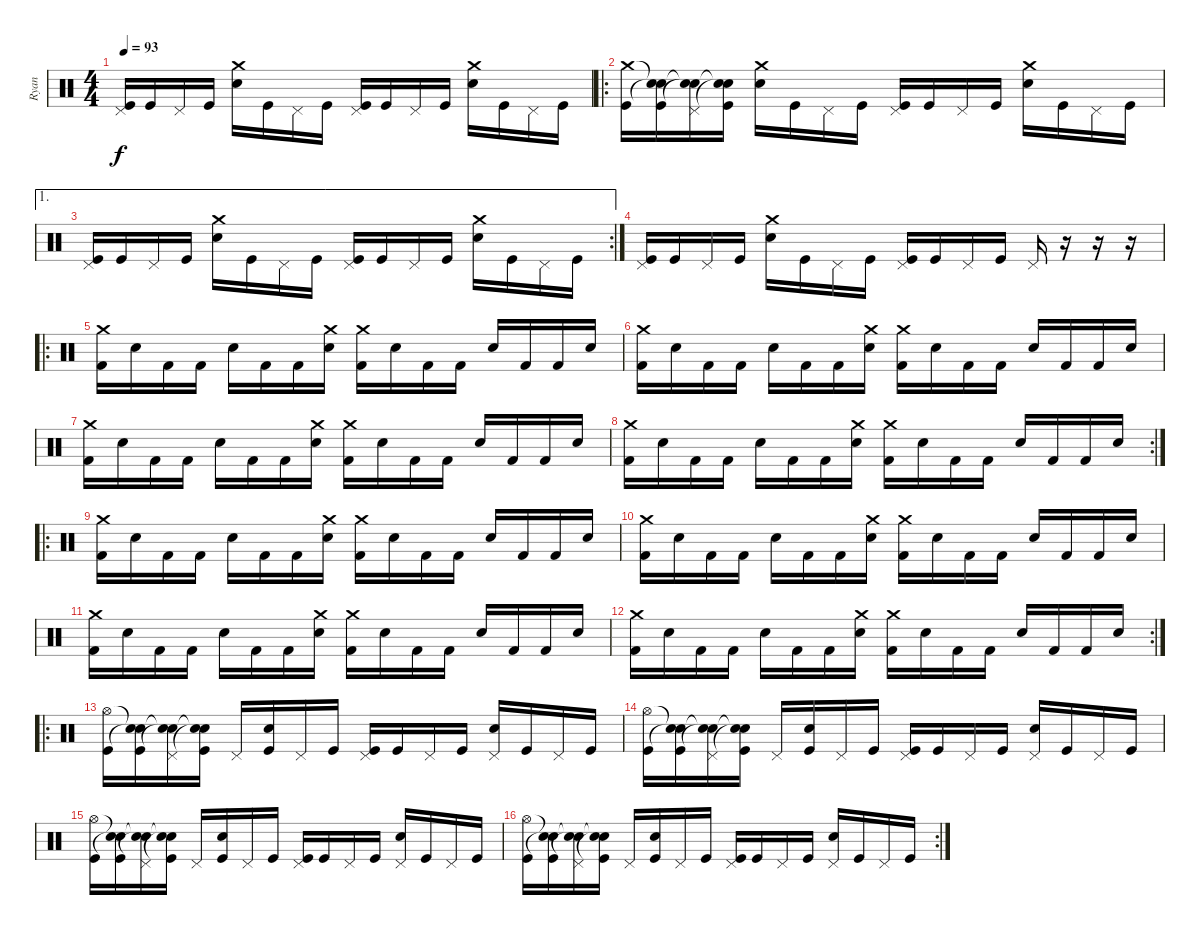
\track ("Ryan" "Ryan") {instrument percussion}
\staff {score}
\articulation defaults
\ts (4 4)
\tempo 93
\clef neutral
\ks c
("Pedal Hi-Hat (hit)" "Kick (hit)").16{dy f} "Kick (hit)".16 "Pedal Hi-Hat (hit)".16 "Kick (hit)".16 ("Crash medium (hit)" "Electric Snare (hit)").16 "Kick (hit)".16 "Pedal Hi-Hat (hit)".16 "Kick (hit)".16 ("Pedal Hi-Hat (hit)" "Kick (hit)").16 "Kick (hit)".16 "Pedal Hi-Hat (hit)".16 "Kick (hit)".16 ("Crash medium (hit)" "Electric Snare (hit)").16 "Kick (hit)".16 "Pedal Hi-Hat (hit)".16 "Kick (hit)".16 |
\ro
("Crash medium (hit)" "Kick (hit)").16 ("Snare (hit)"{t} "Snare (hit)"{t} "Kick (hit)").16 ("Snare (hit)"{t} "Pedal Hi-Hat (hit)" "Snare (hit)"{t}).16 ("Snare (hit)"{t} "Snare (hit)"{t} "Kick (hit)").16 ("Crash medium (hit)" "Electric Snare (hit)").16 "Kick (hit)".16 "Pedal Hi-Hat (hit)".16 "Kick (hit)".16 ("Pedal Hi-Hat (hit)" "Kick (hit)").16 "Kick (hit)".16 "Pedal Hi-Hat (hit)".16 "Kick (hit)".16 ("Crash medium (hit)" "Electric Snare (hit)").16 "Kick (hit)".16 "Pedal Hi-Hat (hit)".16 "Kick (hit)".16 |
\ae 1
\rc 2
("Pedal Hi-Hat (hit)" "Kick (hit)").16 "Kick (hit)".16 "Pedal Hi-Hat (hit)".16 "Kick (hit)".16 ("Crash medium (hit)" "Electric Snare (hit)").16 "Kick (hit)".16 "Pedal Hi-Hat (hit)".16 "Kick (hit)".16 ("Pedal Hi-Hat (hit)" "Kick (hit)").16 "Kick (hit)".16 "Pedal Hi-Hat (hit)".16 "Kick (hit)".16 ("Crash medium (hit)" "Electric Snare (hit)").16 "Kick (hit)".16 "Pedal Hi-Hat (hit)".16 "Kick (hit)".16 |
("Pedal Hi-Hat (hit)" "Kick (hit)").16 "Kick (hit)".16 "Pedal Hi-Hat (hit)".16 "Kick (hit)".16 ("Crash medium (hit)" "Electric Snare (hit)").16 "Kick (hit)".16 "Pedal Hi-Hat (hit)".16 "Kick (hit)".16 ("Pedal Hi-Hat (hit)" "Kick (hit)").16 "Kick (hit)".16 "Pedal Hi-Hat (hit)".16 "Kick (hit)".16 "Pedal Hi-Hat (hit)".16 r.16 r.16 r.16 |
\ro
("Crash medium (hit)" "Kick (hit) 2").16 "Electric Snare (hit)".16 "Kick (hit) 2".16 "Kick (hit) 2".16 "Electric Snare (hit)".16 "Kick (hit) 2".16 "Kick (hit) 2".16 ("Crash medium (hit)" "Electric Snare (hit)").16 ("Crash medium (hit)" "Kick (hit) 2").16 "Electric Snare (hit)".16 "Kick (hit) 2".16 "Kick (hit) 2".16 "Electric Snare (hit)".16 "Kick (hit) 2".16 "Kick (hit) 2".16 "Electric Snare (hit)".16 |
("Crash medium (hit)" "Kick (hit) 2").16 "Electric Snare (hit)".16 "Kick (hit) 2".16 "Kick (hit) 2".16 "Electric Snare (hit)".16 "Kick (hit) 2".16 "Kick (hit) 2".16 ("Crash medium (hit)" "Electric Snare (hit)").16 ("Crash medium (hit)" "Kick (hit) 2").16 "Electric Snare (hit)".16 "Kick (hit) 2".16 "Kick (hit) 2".16 "Electric Snare (hit)".16 "Kick (hit) 2".16 "Kick (hit) 2".16 "Electric Snare (hit)".16 |
("Crash medium (hit)" "Kick (hit) 2").16 "Electric Snare (hit)".16 "Kick (hit) 2".16 "Kick (hit) 2".16 "Electric Snare (hit)".16 "Kick (hit) 2".16 "Kick (hit) 2".16 ("Crash medium (hit)" "Electric Snare (hit)").16 ("Crash medium (hit)" "Kick (hit) 2").16 "Electric Snare (hit)".16 "Kick (hit) 2".16 "Kick (hit) 2".16 "Electric Snare (hit)".16 "Kick (hit) 2".16 "Kick (hit) 2".16 "Electric Snare (hit)".16 |
\rc 2
("Crash medium (hit)" "Kick (hit) 2").16 "Electric Snare (hit)".16 "Kick (hit) 2".16 "Kick (hit) 2".16 "Electric Snare (hit)".16 "Kick (hit) 2".16 "Kick (hit) 2".16 ("Crash medium (hit)" "Electric Snare (hit)").16 ("Crash medium (hit)" "Kick (hit) 2").16 "Electric Snare (hit)".16 "Kick (hit) 2".16 "Kick (hit) 2".16 "Electric Snare (hit)".16 "Kick (hit) 2".16 "Kick (hit) 2".16 "Electric Snare (hit)".16 |
\ro
("Crash medium (hit)" "Kick (hit) 2").16 "Electric Snare (hit)".16 "Kick (hit) 2".16 "Kick (hit) 2".16 "Electric Snare (hit)".16 "Kick (hit) 2".16 "Kick (hit) 2".16 ("Crash medium (hit)" "Electric Snare (hit)").16 ("Crash medium (hit)" "Kick (hit) 2").16 "Electric Snare (hit)".16 "Kick (hit) 2".16 "Kick (hit) 2".16 "Electric Snare (hit)".16 "Kick (hit) 2".16 "Kick (hit) 2".16 "Electric Snare (hit)".16 |
("Crash medium (hit)" "Kick (hit) 2").16 "Electric Snare (hit)".16 "Kick (hit) 2".16 "Kick (hit) 2".16 "Electric Snare (hit)".16 "Kick (hit) 2".16 "Kick (hit) 2".16 ("Crash medium (hit)" "Electric Snare (hit)").16 ("Crash medium (hit)" "Kick (hit) 2").16 "Electric Snare (hit)".16 "Kick (hit) 2".16 "Kick (hit) 2".16 "Electric Snare (hit)".16 "Kick (hit) 2".16 "Kick (hit) 2".16 "Electric Snare (hit)".16 |
("Crash medium (hit)" "Kick (hit) 2").16 "Electric Snare (hit)".16 "Kick (hit) 2".16 "Kick (hit) 2".16 "Electric Snare (hit)".16 "Kick (hit) 2".16 "Kick (hit) 2".16 ("Crash medium (hit)" "Electric Snare (hit)").16 ("Crash medium (hit)" "Kick (hit) 2").16 "Electric Snare (hit)".16 "Kick (hit) 2".16 "Kick (hit) 2".16 "Electric Snare (hit)".16 "Kick (hit) 2".16 "Kick (hit) 2".16 "Electric Snare (hit)".16 |
\rc 2
("Crash medium (hit)" "Kick (hit) 2").16 "Electric Snare (hit)".16 "Kick (hit) 2".16 "Kick (hit) 2".16 "Electric Snare (hit)".16 "Kick (hit) 2".16 "Kick (hit) 2".16 ("Crash medium (hit)" "Electric Snare (hit)").16 ("Crash medium (hit)" "Kick (hit) 2").16 "Electric Snare (hit)".16 "Kick (hit) 2".16 "Kick (hit) 2".16 "Electric Snare (hit)".16 "Kick (hit) 2".16 "Kick (hit) 2".16 "Electric Snare (hit)".16 |
\ro
("Hi-Hat (open)" "Kick (hit)").16 ("Snare (hit)"{t} "Snare (hit)"{t} "Kick (hit)").16 ("Snare (hit)"{t} "Pedal Hi-Hat (hit)" "Snare (hit)"{t}).16 ("Snare (hit)"{t} "Snare (hit)"{t} "Kick (hit)").16 "Pedal Hi-Hat (hit)".16 ("Electric Snare (hit)" "Kick (hit)").16 "Pedal Hi-Hat (hit)".16 "Kick (hit)".16 ("Pedal Hi-Hat (hit)" "Kick (hit)").16 "Kick (hit)".16 "Pedal Hi-Hat (hit)".16 "Kick (hit)".16 ("Pedal Hi-Hat (hit)" "Electric Snare (hit)").16 "Kick (hit)".16 "Pedal Hi-Hat (hit)".16 "Kick (hit)".16 |
("Hi-Hat (open)" "Kick (hit)").16 ("Snare (hit)"{t} "Snare (hit)"{t} "Kick (hit)").16 ("Snare (hit)"{t} "Pedal Hi-Hat (hit)" "Snare (hit)"{t}).16 ("Snare (hit)"{t} "Snare (hit)"{t} "Kick (hit)").16 "Pedal Hi-Hat (hit)".16 ("Electric Snare (hit)" "Kick (hit)").16 "Pedal Hi-Hat (hit)".16 "Kick (hit)".16 ("Pedal Hi-Hat (hit)" "Kick (hit)").16 "Kick (hit)".16 "Pedal Hi-Hat (hit)".16 "Kick (hit)".16 ("Pedal Hi-Hat (hit)" "Electric Snare (hit)").16 "Kick (hit)".16 "Pedal Hi-Hat (hit)".16 "Kick (hit)".16 |
("Hi-Hat (open)" "Kick (hit)").16 ("Snare (hit)"{t} "Snare (hit)"{t} "Kick (hit)").16 ("Snare (hit)"{t} "Pedal Hi-Hat (hit)" "Snare (hit)"{t}).16 ("Snare (hit)"{t} "Snare (hit)"{t} "Kick (hit)").16 "Pedal Hi-Hat (hit)".16 ("Electric Snare (hit)" "Kick (hit)").16 "Pedal Hi-Hat (hit)".16 "Kick (hit)".16 ("Pedal Hi-Hat (hit)" "Kick (hit)").16 "Kick (hit)".16 "Pedal Hi-Hat (hit)".16 "Kick (hit)".16 ("Pedal Hi-Hat (hit)" "Electric Snare (hit)").16 "Kick (hit)".16 "Pedal Hi-Hat (hit)".16 "Kick (hit)".16 |
\rc 2
("Hi-Hat (open)" "Kick (hit)").16 ("Snare (hit)"{t} "Snare (hit)"{t} "Kick (hit)").16 ("Snare (hit)"{t} "Pedal Hi-Hat (hit)" "Snare (hit)"{t}).16 ("Snare (hit)"{t} "Snare (hit)"{t} "Kick (hit)").16 "Pedal Hi-Hat (hit)".16 ("Electric Snare (hit)" "Kick (hit)").16 "Pedal Hi-Hat (hit)".16 "Kick (hit)".16 ("Pedal Hi-Hat (hit)" "Kick (hit)").16 "Kick (hit)".16 "Pedal Hi-Hat (hit)".16 "Kick (hit)".16 ("Pedal Hi-Hat (hit)" "Electric Snare (hit)").16 "Kick (hit)".16 "Pedal Hi-Hat (hit)".16 "Kick (hit)".16
